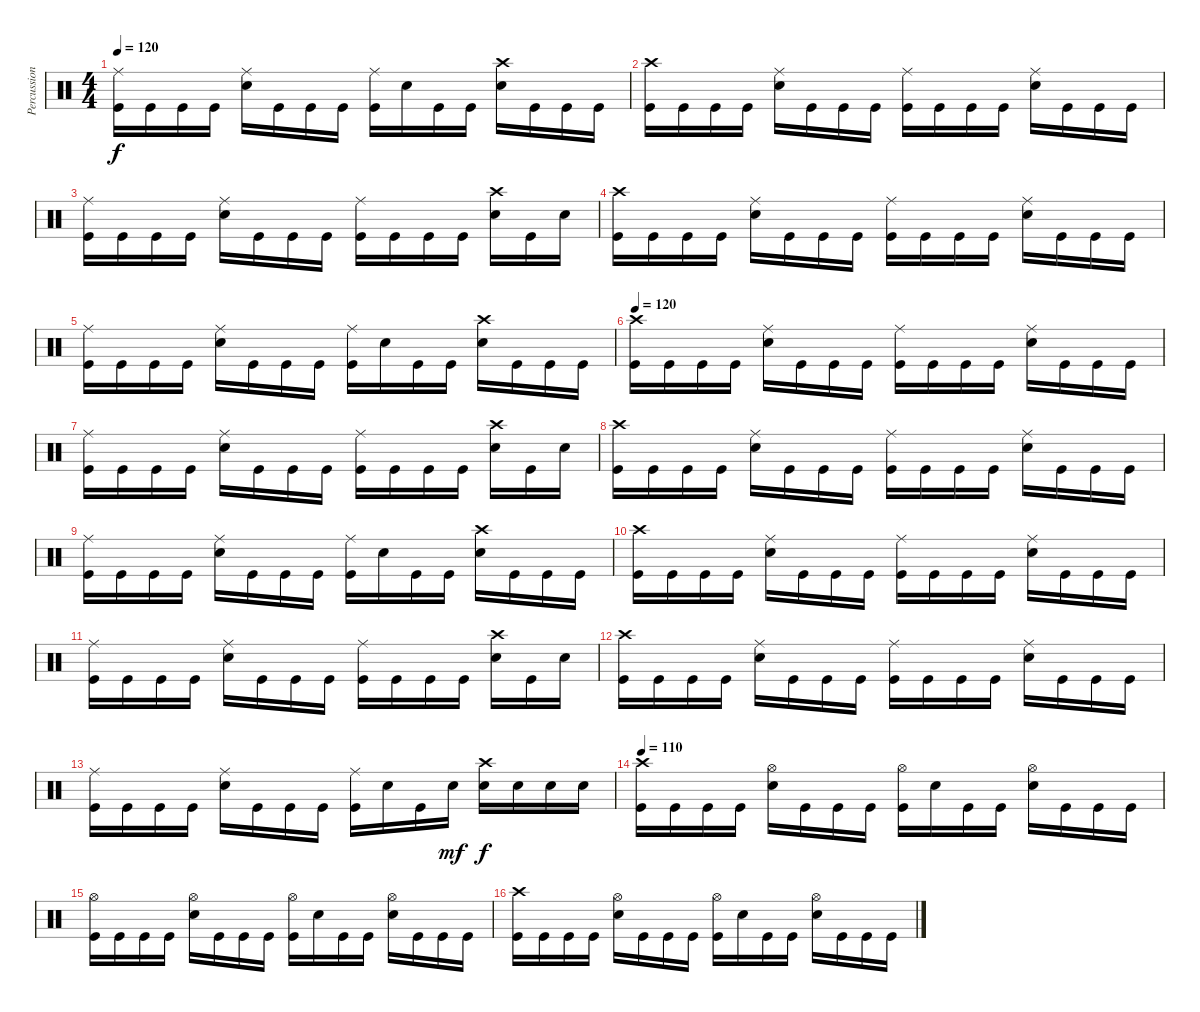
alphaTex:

\track ("Percussion" "Percussion") {instrument percussion}
\staff {score}
\articulation defaults
\ts (4 4)
\tempo 120
\clef neutral
\ks c
("Kick (hit)" "Ride (middle)").16{dy f} "Kick (hit)".16 "Kick (hit)".16 "Kick (hit)".16 ("Electric Snare (hit)" "Ride (middle)").16 "Kick (hit)".16 "Kick (hit)".16 "Kick (hit)".16 ("Kick (hit)" "Ride (middle)").16 "Electric Snare (hit)".16 "Kick (hit)".16 "Kick (hit)".16 ("Electric Snare (hit)" "Crash high (hit)").16 "Kick (hit)".16 "Kick (hit)".16 "Kick (hit)".16 |
("Kick (hit)" "Crash high (hit)").16 "Kick (hit)".16 "Kick (hit)".16 "Kick (hit)".16 ("Electric Snare (hit)" "Ride (middle)").16 "Kick (hit)".16 "Kick (hit)".16 "Kick (hit)".16 ("Kick (hit)" "Ride (middle)").16 "Kick (hit)".16 "Kick (hit)".16 "Kick (hit)".16 ("Electric Snare (hit)" "Ride (middle)").16 "Kick (hit)".16 "Kick (hit)".16 "Kick (hit)".16 |
("Kick (hit)" "Ride (middle)").16 "Kick (hit)".16 "Kick (hit)".16 "Kick (hit)".16 ("Electric Snare (hit)" "Ride (middle)").16 "Kick (hit)".16 "Kick (hit)".16 "Kick (hit)".16 ("Kick (hit)" "Ride (middle)").16 "Kick (hit)".16 "Kick (hit)".16 "Kick (hit)".16 ("Electric Snare (hit)" "Crash high (hit)").16 "Kick (hit)".16 "Electric Snare (hit)".16 |
("Kick (hit)" "Crash high (hit)").16 "Kick (hit)".16 "Kick (hit)".16 "Kick (hit)".16 ("Electric Snare (hit)" "Ride (middle)").16 "Kick (hit)".16 "Kick (hit)".16 "Kick (hit)".16 ("Kick (hit)" "Ride (middle)").16 "Kick (hit)".16 "Kick (hit)".16 "Kick (hit)".16 ("Electric Snare (hit)" "Ride (middle)").16 "Kick (hit)".16 "Kick (hit)".16 "Kick (hit)".16 |
("Kick (hit)" "Ride (middle)").16 "Kick (hit)".16 "Kick (hit)".16 "Kick (hit)".16 ("Electric Snare (hit)" "Ride (middle)").16 "Kick (hit)".16 "Kick (hit)".16 "Kick (hit)".16 ("Kick (hit)" "Ride (middle)").16 "Electric Snare (hit)".16 "Kick (hit)".16 "Kick (hit)".16 ("Electric Snare (hit)" "Crash high (hit)").16 "Kick (hit)".16 "Kick (hit)".16 "Kick (hit)".16 |
\tempo 120
("Kick (hit)" "Crash high (hit)").16 "Kick (hit)".16 "Kick (hit)".16 "Kick (hit)".16 ("Electric Snare (hit)" "Ride (middle)").16 "Kick (hit)".16 "Kick (hit)".16 "Kick (hit)".16 ("Kick (hit)" "Ride (middle)").16 "Kick (hit)".16 "Kick (hit)".16 "Kick (hit)".16 ("Electric Snare (hit)" "Ride (middle)").16 "Kick (hit)".16 "Kick (hit)".16 "Kick (hit)".16 |
("Kick (hit)" "Ride (middle)").16 "Kick (hit)".16 "Kick (hit)".16 "Kick (hit)".16 ("Electric Snare (hit)" "Ride (middle)").16 "Kick (hit)".16 "Kick (hit)".16 "Kick (hit)".16 ("Kick (hit)" "Ride (middle)").16 "Kick (hit)".16 "Kick (hit)".16 "Kick (hit)".16 ("Electric Snare (hit)" "Crash high (hit)").16 "Kick (hit)".16 "Electric Snare (hit)".16 |
("Kick (hit)" "Crash high (hit)").16 "Kick (hit)".16 "Kick (hit)".16 "Kick (hit)".16 ("Electric Snare (hit)" "Ride (middle)").16 "Kick (hit)".16 "Kick (hit)".16 "Kick (hit)".16 ("Kick (hit)" "Ride (middle)").16 "Kick (hit)".16 "Kick (hit)".16 "Kick (hit)".16 ("Electric Snare (hit)" "Ride (middle)").16 "Kick (hit)".16 "Kick (hit)".16 "Kick (hit)".16 |
("Kick (hit)" "Ride (middle)").16 "Kick (hit)".16 "Kick (hit)".16 "Kick (hit)".16 ("Electric Snare (hit)" "Ride (middle)").16 "Kick (hit)".16 "Kick (hit)".16 "Kick (hit)".16 ("Kick (hit)" "Ride (middle)").16 "Electric Snare (hit)".16 "Kick (hit)".16 "Kick (hit)".16 ("Electric Snare (hit)" "Crash high (hit)").16 "Kick (hit)".16 "Kick (hit)".16 "Kick (hit)".16 |
("Kick (hit)" "Crash high (hit)").16 "Kick (hit)".16 "Kick (hit)".16 "Kick (hit)".16 ("Electric Snare (hit)" "Ride (middle)").16 "Kick (hit)".16 "Kick (hit)".16 "Kick (hit)".16 ("Kick (hit)" "Ride (middle)").16 "Kick (hit)".16 "Kick (hit)".16 "Kick (hit)".16 ("Electric Snare (hit)" "Ride (middle)").16 "Kick (hit)".16 "Kick (hit)".16 "Kick (hit)".16 |
("Kick (hit)" "Ride (middle)").16 "Kick (hit)".16 "Kick (hit)".16 "Kick (hit)".16 ("Electric Snare (hit)" "Ride (middle)").16 "Kick (hit)".16 "Kick (hit)".16 "Kick (hit)".16 ("Kick (hit)" "Ride (middle)").16 "Kick (hit)".16 "Kick (hit)".16 "Kick (hit)".16 ("Electric Snare (hit)" "Crash high (hit)").16 "Kick (hit)".16 "Electric Snare (hit)".16 |
("Kick (hit)" "Crash high (hit)").16 "Kick (hit)".16 "Kick (hit)".16 "Kick (hit)".16 ("Electric Snare (hit)" "Ride (middle)").16 "Kick (hit)".16 "Kick (hit)".16 "Kick (hit)".16 ("Kick (hit)" "Ride (middle)").16 "Kick (hit)".16 "Kick (hit)".16 "Kick (hit)".16 ("Electric Snare (hit)" "Ride (middle)").16 "Kick (hit)".16 "Kick (hit)".16 "Kick (hit)".16 |
("Kick (hit)" "Ride (middle)").16 "Kick (hit)".16 "Kick (hit)".16 "Kick (hit)".16 ("Electric Snare (hit)" "Ride (middle)").16 "Kick (hit)".16 "Kick (hit)".16 "Kick (hit)".16 ("Kick (hit)" "Ride (middle)").16 "Electric Snare (hit)".16 "Kick (hit)".16 "Electric Snare (hit)".16{dy mf} ("Electric Snare (hit)" "Crash high (hit)").16{dy f} "Electric Snare (hit)".16 "Electric Snare (hit)".16 "Electric Snare (hit)".16 |
\tempo 110
("Kick (hit)" "Crash high (hit)").16 "Kick (hit)".16 "Kick (hit)".16 "Kick (hit)".16 ("Electric Snare (hit)" "Hi-Hat (open)").16 "Kick (hit)".16 "Kick (hit)".16 "Kick (hit)".16 ("Kick (hit)" "Hi-Hat (open)").16 "Electric Snare (hit)".16 "Kick (hit)".16 "Kick (hit)".16 ("Electric Snare (hit)" "Hi-Hat (open)").16 "Kick (hit)".16 "Kick (hit)".16 "Kick (hit)".16 |
("Kick (hit)" "Hi-Hat (open)").16 "Kick (hit)".16 "Kick (hit)".16 "Kick (hit)".16 ("Electric Snare (hit)" "Hi-Hat (open)").16 "Kick (hit)".16 "Kick (hit)".16 "Kick (hit)".16 ("Kick (hit)" "Hi-Hat (open)").16 "Electric Snare (hit)".16 "Kick (hit)".16 "Kick (hit)".16 ("Electric Snare (hit)" "Hi-Hat (open)").16 "Kick (hit)".16 "Kick (hit)".16 "Kick (hit)".16 |
("Kick (hit)" "Crash high (hit)").16 "Kick (hit)".16 "Kick (hit)".16 "Kick (hit)".16 ("Electric Snare (hit)" "Hi-Hat (open)").16 "Kick (hit)".16 "Kick (hit)".16 "Kick (hit)".16 ("Kick (hit)" "Hi-Hat (open)").16 "Electric Snare (hit)".16 "Kick (hit)".16 "Kick (hit)".16 ("Electric Snare (hit)" "Hi-Hat (open)").16 "Kick (hit)".16 "Kick (hit)".16 "Kick (hit)".16
